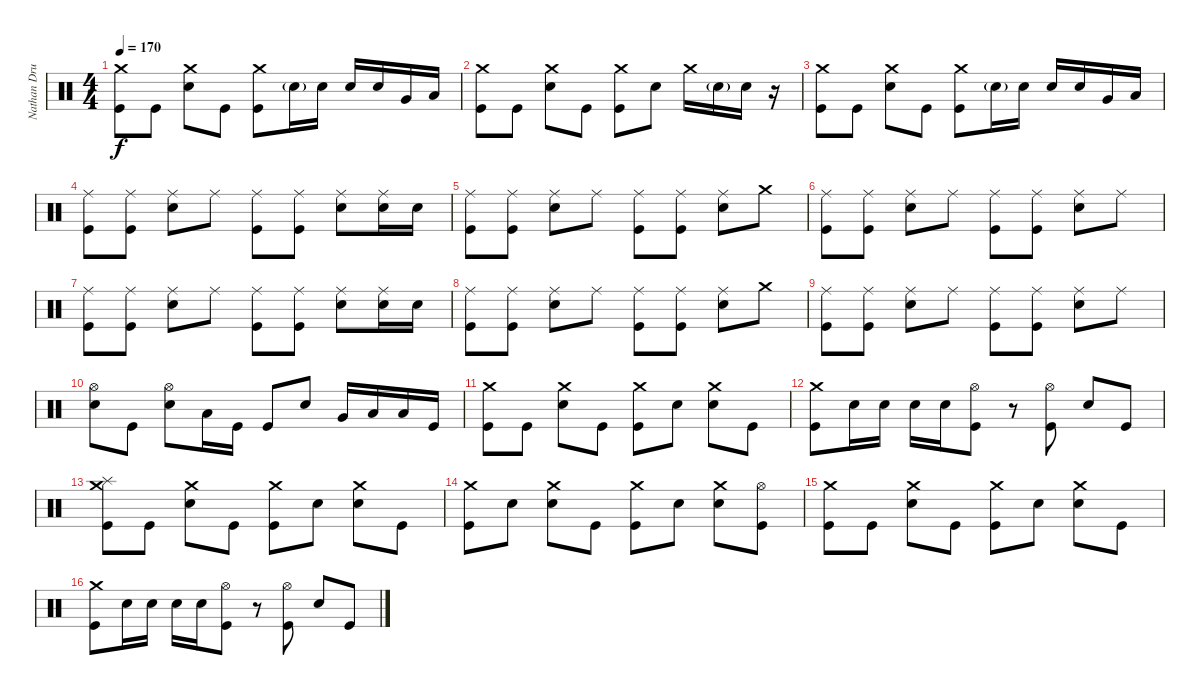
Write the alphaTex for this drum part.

\track ("Nathan Drum Programming" "Nathan Dru") {instrument percussion}
\staff {score}
\articulation defaults
\ts (4 4)
\tempo 170
\clef neutral
\ks c
("Kick (hit)" "Crash medium (hit)").8{dy f} "Kick (hit)".8 ("Crash medium (hit)" "Snare (hit) 2").8 "Kick (hit)".8 ("Kick (hit)" "Crash medium (hit)").8 "Snare (hit) 2"{g}.16 "Snare (hit) 2".16 "Snare (hit) 2".16 "Snare (hit) 2".16 "Very Low Tom (hit)".16 "Low Floor Tom (hit)".16 |
("Kick (hit)" "Crash medium (hit)").8 "Kick (hit)".8 ("Crash medium (hit)" "Snare (hit) 2").8 "Kick (hit)".8 ("Kick (hit)" "Crash medium (hit)").8 "Snare (hit) 2".8 "Crash medium (hit)".16 "Snare (hit) 2"{g}.16 "Snare (hit) 2".16 r.16 |
("Kick (hit)" "Crash medium (hit)").8 "Kick (hit)".8 ("Crash medium (hit)" "Snare (hit) 2").8 "Kick (hit)".8 ("Kick (hit)" "Crash medium (hit)").8 "Snare (hit) 2"{g}.16 "Snare (hit) 2".16 "Snare (hit) 2".16 "Snare (hit) 2".16 "Very Low Tom (hit)".16 "Low Floor Tom (hit)".16 |
("Ride (middle)" "Kick (hit)").8 ("Ride (middle)" "Kick (hit)").8 ("Ride (middle)" "Snare (hit) 2").8 "Ride (middle)".8 ("Ride (middle)" "Kick (hit)").8 ("Ride (middle)" "Kick (hit)").8 ("Ride (middle)" "Snare (hit) 2").8 ("Ride (middle)" "Snare (hit) 2").16 "Snare (hit) 2".16 |
("Ride (middle)" "Kick (hit)").8 ("Ride (middle)" "Kick (hit)").8 ("Ride (middle)" "Snare (hit) 2").8 "Ride (middle)".8 ("Ride (middle)" "Kick (hit)").8 ("Ride (middle)" "Kick (hit)").8 ("Ride (middle)" "Snare (hit) 2").8 "Crash medium (hit)".8 |
("Ride (middle)" "Kick (hit)").8 ("Ride (middle)" "Kick (hit)").8 ("Ride (middle)" "Snare (hit) 2").8 "Ride (middle)".8 ("Ride (middle)" "Kick (hit)").8 ("Ride (middle)" "Kick (hit)").8 ("Ride (middle)" "Snare (hit) 2").8 "Ride (middle)".8 |
("Ride (middle)" "Kick (hit)").8 ("Ride (middle)" "Kick (hit)").8 ("Ride (middle)" "Snare (hit) 2").8 "Ride (middle)".8 ("Ride (middle)" "Kick (hit)").8 ("Ride (middle)" "Kick (hit)").8 ("Ride (middle)" "Snare (hit) 2").8 ("Ride (middle)" "Snare (hit) 2").16 "Snare (hit) 2".16 |
("Ride (middle)" "Kick (hit)").8 ("Ride (middle)" "Kick (hit)").8 ("Ride (middle)" "Snare (hit) 2").8 "Ride (middle)".8 ("Ride (middle)" "Kick (hit)").8 ("Ride (middle)" "Kick (hit)").8 ("Ride (middle)" "Snare (hit) 2").8 "Crash medium (hit)".8 |
("Ride (middle)" "Kick (hit)").8 ("Ride (middle)" "Kick (hit)").8 ("Ride (middle)" "Snare (hit) 2").8 "Ride (middle)".8 ("Ride (middle)" "Kick (hit)").8 ("Ride (middle)" "Kick (hit)").8 ("Ride (middle)" "Snare (hit) 2").8 "Ride (middle)".8 |
("Snare (hit) 2" "Hi-Hat (open)").8 "Kick (hit)".8 ("Snare (hit) 2" "Hi-Hat (open)").8 "Low Floor Tom (hit)".16 "Kick (hit)".16 "Kick (hit)".8 "Snare (hit) 2".8 "Very Low Tom (hit)".16 "Low Floor Tom (hit)".16 "Low Floor Tom (hit)".16 "Kick (hit)".16 |
("Crash medium (hit)" "Kick (hit)").8 "Kick (hit)".8 ("Crash medium (hit)" "Snare (hit) 2").8 "Kick (hit)".8 ("Crash medium (hit)" "Kick (hit)").8 "Snare (hit) 2".8 ("Crash medium (hit)" "Snare (hit) 2").8 "Kick (hit)".8 |
("Crash medium (hit)" "Kick (hit)").8 "Snare (hit) 2".16 "Snare (hit) 2".16 "Snare (hit) 2".16 "Snare (hit) 2".16 ("Kick (hit)" "Hi-Hat (open)").8 r.8 ("Hi-Hat (open)" "Kick (hit)").8 "Snare (hit) 2".8 "Kick (hit)".8 |
("Crash medium (hit)" "Splash (hit)" "Kick (hit)").8 "Kick (hit)".8 ("Crash medium (hit)" "Snare (hit) 2").8 "Kick (hit)".8 ("Crash medium (hit)" "Kick (hit)").8 "Snare (hit) 2".8 ("Crash medium (hit)" "Snare (hit) 2").8 "Kick (hit)".8 |
("Crash medium (hit)" "Kick (hit)").8 "Snare (hit) 2".8 ("Crash medium (hit)" "Snare (hit) 2").8 "Kick (hit)".8 ("Crash medium (hit)" "Kick (hit)").8 "Snare (hit) 2".8 ("Crash medium (hit)" "Snare (hit) 2").8 ("Kick (hit)" "Hi-Hat (open)").8 |
("Crash medium (hit)" "Kick (hit)").8 "Kick (hit)".8 ("Crash medium (hit)" "Snare (hit) 2").8 "Kick (hit)".8 ("Crash medium (hit)" "Kick (hit)").8 "Snare (hit) 2".8 ("Crash medium (hit)" "Snare (hit) 2").8 "Kick (hit)".8 |
("Crash medium (hit)" "Kick (hit)").8 "Snare (hit) 2".16 "Snare (hit) 2".16 "Snare (hit) 2".16 "Snare (hit) 2".16 ("Kick (hit)" "Hi-Hat (open)").8 r.8 ("Hi-Hat (open)" "Kick (hit)").8 "Snare (hit) 2".8 "Kick (hit)".8
